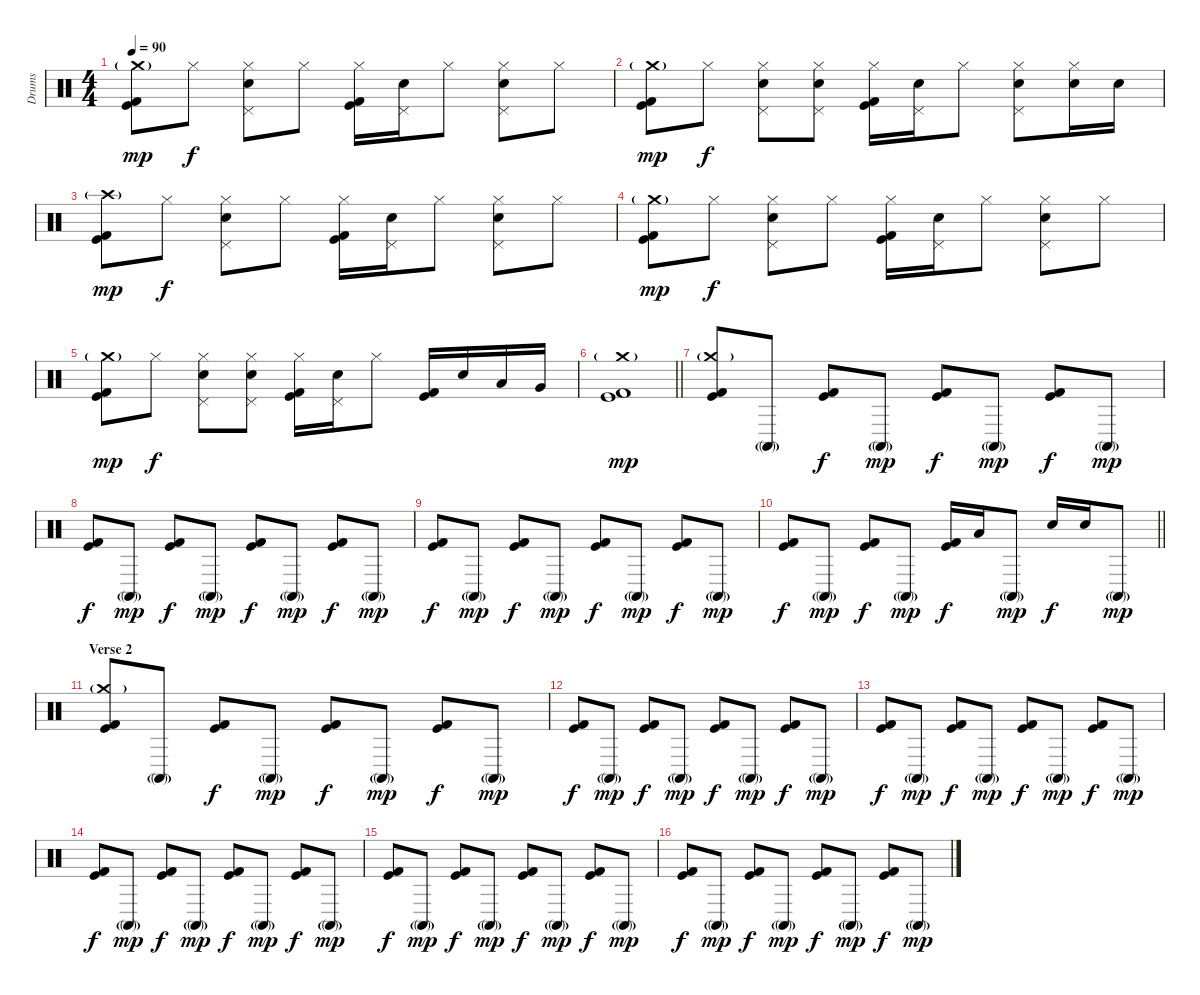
\track ("Drums" "Drums") {instrument percussion}
\staff {score}
\articulation defaults
\ts (4 4)
\tempo 90
\clef neutral
\ks c
("Crash medium (hit)"{g} "Kick (hit)" "Kick (hit) 2").8{dy mp} "Hi-Hat (closed)".8{dy f} ("Hi-Hat (closed)" "Pedal Hi-Hat (hit)" "Electric Snare (hit)").8 "Hi-Hat (closed)".8 ("Hi-Hat (closed)" "Kick (hit)" "Kick (hit) 2").16 ("Pedal Hi-Hat (hit)" "Electric Snare (hit)").16 "Hi-Hat (closed)".8 ("Hi-Hat (closed)" "Pedal Hi-Hat (hit)" "Electric Snare (hit)").8 "Hi-Hat (closed)".8 |
("Crash medium (hit)"{g} "Kick (hit)" "Kick (hit) 2").8{dy mp} "Hi-Hat (closed)".8{dy f} ("Hi-Hat (closed)" "Pedal Hi-Hat (hit)" "Electric Snare (hit)").8 ("Hi-Hat (closed)" "Pedal Hi-Hat (hit)" "Electric Snare (hit)").8 ("Hi-Hat (closed)" "Kick (hit)" "Kick (hit) 2").16 ("Pedal Hi-Hat (hit)" "Electric Snare (hit)").16 "Hi-Hat (closed)".8 ("Hi-Hat (closed)" "Pedal Hi-Hat (hit)" "Electric Snare (hit)").8 ("Hi-Hat (closed)" "Electric Snare (hit)").16 "Electric Snare (hit)".16 |
("Crash high (hit)"{g} "Kick (hit)" "Kick (hit) 2").8{dy mp} "Hi-Hat (closed)".8{dy f} ("Hi-Hat (closed)" "Pedal Hi-Hat (hit)" "Electric Snare (hit)").8 "Hi-Hat (closed)".8 ("Hi-Hat (closed)" "Kick (hit)" "Kick (hit) 2").16 ("Pedal Hi-Hat (hit)" "Electric Snare (hit)").16 "Hi-Hat (closed)".8 ("Hi-Hat (closed)" "Pedal Hi-Hat (hit)" "Electric Snare (hit)").8 "Hi-Hat (closed)".8 |
("Crash medium (hit)"{g} "Kick (hit)" "Kick (hit) 2").8{dy mp} "Hi-Hat (closed)".8{dy f} ("Hi-Hat (closed)" "Pedal Hi-Hat (hit)" "Electric Snare (hit)").8 "Hi-Hat (closed)".8 ("Hi-Hat (closed)" "Kick (hit)" "Kick (hit) 2").16 ("Pedal Hi-Hat (hit)" "Electric Snare (hit)").16 "Hi-Hat (closed)".8 ("Hi-Hat (closed)" "Pedal Hi-Hat (hit)" "Electric Snare (hit)").8 "Hi-Hat (closed)".8 |
("Crash medium (hit)"{g} "Kick (hit)" "Kick (hit) 2").8{dy mp} "Hi-Hat (closed)".8{dy f} ("Hi-Hat (closed)" "Pedal Hi-Hat (hit)" "Electric Snare (hit)").8 ("Hi-Hat (closed)" "Pedal Hi-Hat (hit)" "Electric Snare (hit)").8 ("Hi-Hat (closed)" "Kick (hit)" "Kick (hit) 2").16 ("Pedal Hi-Hat (hit)" "Electric Snare (hit)").16 "Hi-Hat (closed)".8 ("Kick (hit)" "Kick (hit) 2").16 "Electric Snare (hit)".16 "Low Tom (hit)".16 "Very Low Tom (hit)".16 |
\barLineRight lightlight
("Crash medium (hit)"{g} "Kick (hit)" "Kick (hit) 2").1{dy mp} |
\section ("" "")
("Crash medium (hit)"{g} "Kick (hit)" "Kick (hit) 2").8 "Conga high (mute)"{g}.8 ("Kick (hit)" "Kick (hit) 2").8{dy f} "Conga high (mute)"{g}.8{dy mp} ("Kick (hit)" "Kick (hit) 2").8{dy f} "Conga high (mute)"{g}.8{dy mp} ("Kick (hit)" "Kick (hit) 2").8{dy f} "Conga high (mute)"{g}.8{dy mp} |
("Kick (hit)" "Kick (hit) 2").8{dy f} "Conga high (mute)"{g}.8{dy mp} ("Kick (hit)" "Kick (hit) 2").8{dy f} "Conga high (mute)"{g}.8{dy mp} ("Kick (hit)" "Kick (hit) 2").8{dy f} "Conga high (mute)"{g}.8{dy mp} ("Kick (hit)" "Kick (hit) 2").8{dy f} "Conga high (mute)"{g}.8{dy mp} |
("Kick (hit)" "Kick (hit) 2").8{dy f} "Conga high (mute)"{g}.8{dy mp} ("Kick (hit)" "Kick (hit) 2").8{dy f} "Conga high (mute)"{g}.8{dy mp} ("Kick (hit)" "Kick (hit) 2").8{dy f} "Conga high (mute)"{g}.8{dy mp} ("Kick (hit)" "Kick (hit) 2").8{dy f} "Conga high (mute)"{g}.8{dy mp} |
\barLineRight lightlight
("Kick (hit)" "Kick (hit) 2").8{dy f} "Conga high (mute)"{g}.8{dy mp} ("Kick (hit)" "Kick (hit) 2").8{dy f} "Conga high (mute)"{g}.8{dy mp} ("Kick (hit)" "Kick (hit) 2").16{dy f} "Low Tom (hit)".16 "Conga high (mute)"{g}.8{dy mp} "Electric Snare (hit)".16{dy f} "Electric Snare (hit)".16 "Conga high (mute)"{g}.8{dy mp} |
\section ("" "Verse 2")
("Crash medium (hit)"{g} "Kick (hit)" "Kick (hit) 2").8 "Conga high (mute)"{g}.8 ("Kick (hit)" "Kick (hit) 2").8{dy f} "Conga high (mute)"{g}.8{dy mp} ("Kick (hit)" "Kick (hit) 2").8{dy f} "Conga high (mute)"{g}.8{dy mp} ("Kick (hit)" "Kick (hit) 2").8{dy f} "Conga high (mute)"{g}.8{dy mp} |
("Kick (hit)" "Kick (hit) 2").8{dy f} "Conga high (mute)"{g}.8{dy mp} ("Kick (hit)" "Kick (hit) 2").8{dy f} "Conga high (mute)"{g}.8{dy mp} ("Kick (hit)" "Kick (hit) 2").8{dy f} "Conga high (mute)"{g}.8{dy mp} ("Kick (hit)" "Kick (hit) 2").8{dy f} "Conga high (mute)"{g}.8{dy mp} |
("Kick (hit)" "Kick (hit) 2").8{dy f} "Conga high (mute)"{g}.8{dy mp} ("Kick (hit)" "Kick (hit) 2").8{dy f} "Conga high (mute)"{g}.8{dy mp} ("Kick (hit)" "Kick (hit) 2").8{dy f} "Conga high (mute)"{g}.8{dy mp} ("Kick (hit)" "Kick (hit) 2").8{dy f} "Conga high (mute)"{g}.8{dy mp} |
("Kick (hit)" "Kick (hit) 2").8{dy f} "Conga high (mute)"{g}.8{dy mp} ("Kick (hit)" "Kick (hit) 2").8{dy f} "Conga high (mute)"{g}.8{dy mp} ("Kick (hit)" "Kick (hit) 2").8{dy f} "Conga high (mute)"{g}.8{dy mp} ("Kick (hit)" "Kick (hit) 2").8{dy f} "Conga high (mute)"{g}.8{dy mp} |
("Kick (hit)" "Kick (hit) 2").8{dy f} "Conga high (mute)"{g}.8{dy mp} ("Kick (hit)" "Kick (hit) 2").8{dy f} "Conga high (mute)"{g}.8{dy mp} ("Kick (hit)" "Kick (hit) 2").8{dy f} "Conga high (mute)"{g}.8{dy mp} ("Kick (hit)" "Kick (hit) 2").8{dy f} "Conga high (mute)"{g}.8{dy mp} |
("Kick (hit)" "Kick (hit) 2").8{dy f} "Conga high (mute)"{g}.8{dy mp} ("Kick (hit)" "Kick (hit) 2").8{dy f} "Conga high (mute)"{g}.8{dy mp} ("Kick (hit)" "Kick (hit) 2").8{dy f} "Conga high (mute)"{g}.8{dy mp} ("Kick (hit)" "Kick (hit) 2").8{dy f} "Conga high (mute)"{g}.8{dy mp}
